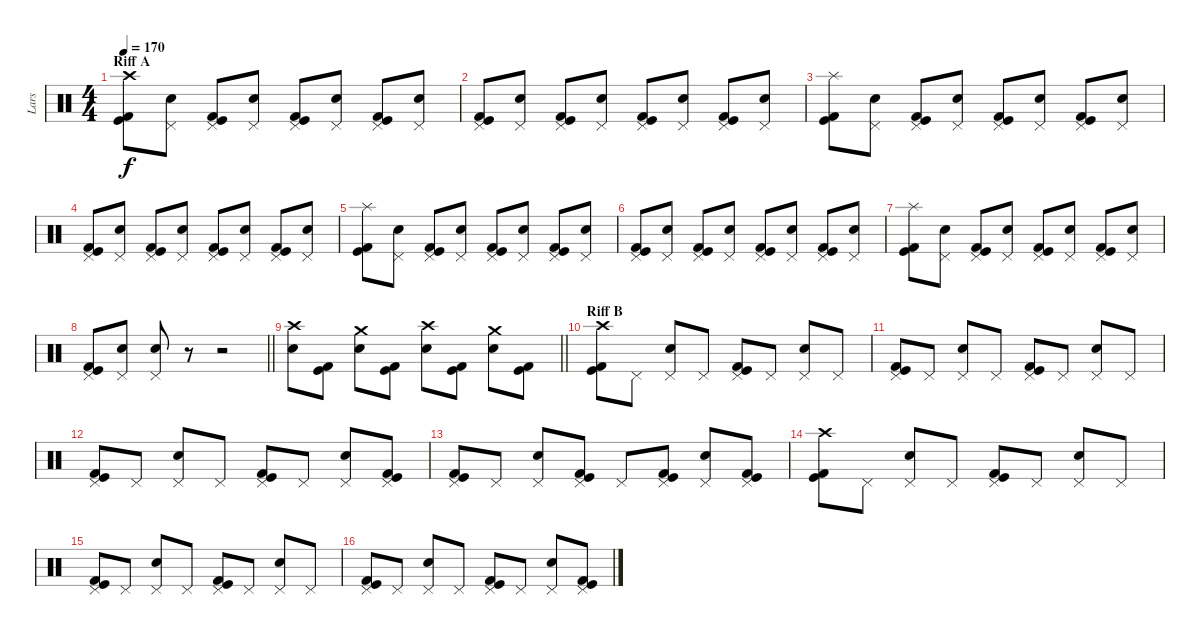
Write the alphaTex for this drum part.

\track ("Lars" "Lars") {instrument percussion}
\staff {score}
\articulation defaults
\ts (4 4)
\section ("" "Riff A")
\tempo 170
\clef neutral
\ks c
("Crash high (hit)" "Kick (hit)" "Kick (hit) 2").8{dy f} ("Pedal Hi-Hat (hit)" "Electric Snare (hit)").8 ("Pedal Hi-Hat (hit)" "Kick (hit)" "Kick (hit) 2").8 ("Pedal Hi-Hat (hit)" "Electric Snare (hit)").8 ("Pedal Hi-Hat (hit)" "Kick (hit)" "Kick (hit) 2").8 ("Pedal Hi-Hat (hit)" "Electric Snare (hit)").8 ("Pedal Hi-Hat (hit)" "Kick (hit)" "Kick (hit) 2").8 ("Pedal Hi-Hat (hit)" "Electric Snare (hit)").8 |
("Pedal Hi-Hat (hit)" "Kick (hit)" "Kick (hit) 2").8 ("Pedal Hi-Hat (hit)" "Electric Snare (hit)").8 ("Pedal Hi-Hat (hit)" "Kick (hit)" "Kick (hit) 2").8 ("Pedal Hi-Hat (hit)" "Electric Snare (hit)").8 ("Pedal Hi-Hat (hit)" "Kick (hit)" "Kick (hit) 2").8 ("Pedal Hi-Hat (hit)" "Electric Snare (hit)").8 ("Pedal Hi-Hat (hit)" "Kick (hit)" "Kick (hit) 2").8 ("Pedal Hi-Hat (hit)" "Electric Snare (hit)").8 |
("Splash (hit)" "Kick (hit)" "Kick (hit) 2").8 ("Pedal Hi-Hat (hit)" "Electric Snare (hit)").8 ("Pedal Hi-Hat (hit)" "Kick (hit)" "Kick (hit) 2").8 ("Pedal Hi-Hat (hit)" "Electric Snare (hit)").8 ("Pedal Hi-Hat (hit)" "Kick (hit)" "Kick (hit) 2").8 ("Pedal Hi-Hat (hit)" "Electric Snare (hit)").8 ("Pedal Hi-Hat (hit)" "Kick (hit)" "Kick (hit) 2").8 ("Pedal Hi-Hat (hit)" "Electric Snare (hit)").8 |
("Pedal Hi-Hat (hit)" "Kick (hit)" "Kick (hit) 2").8 ("Pedal Hi-Hat (hit)" "Electric Snare (hit)").8 ("Pedal Hi-Hat (hit)" "Kick (hit)" "Kick (hit) 2").8 ("Pedal Hi-Hat (hit)" "Electric Snare (hit)").8 ("Pedal Hi-Hat (hit)" "Kick (hit)" "Kick (hit) 2").8 ("Pedal Hi-Hat (hit)" "Electric Snare (hit)").8 ("Pedal Hi-Hat (hit)" "Kick (hit)" "Kick (hit) 2").8 ("Pedal Hi-Hat (hit)" "Electric Snare (hit)").8 |
("Splash (hit)" "Kick (hit)" "Kick (hit) 2").8 ("Pedal Hi-Hat (hit)" "Electric Snare (hit)").8 ("Pedal Hi-Hat (hit)" "Kick (hit)" "Kick (hit) 2").8 ("Pedal Hi-Hat (hit)" "Electric Snare (hit)").8 ("Pedal Hi-Hat (hit)" "Kick (hit)" "Kick (hit) 2").8 ("Pedal Hi-Hat (hit)" "Electric Snare (hit)").8 ("Pedal Hi-Hat (hit)" "Kick (hit)" "Kick (hit) 2").8 ("Pedal Hi-Hat (hit)" "Electric Snare (hit)").8 |
("Pedal Hi-Hat (hit)" "Kick (hit)" "Kick (hit) 2").8 ("Pedal Hi-Hat (hit)" "Electric Snare (hit)").8 ("Pedal Hi-Hat (hit)" "Kick (hit)" "Kick (hit) 2").8 ("Pedal Hi-Hat (hit)" "Electric Snare (hit)").8 ("Pedal Hi-Hat (hit)" "Kick (hit)" "Kick (hit) 2").8 ("Pedal Hi-Hat (hit)" "Electric Snare (hit)").8 ("Pedal Hi-Hat (hit)" "Kick (hit)" "Kick (hit) 2").8 ("Pedal Hi-Hat (hit)" "Electric Snare (hit)").8 |
("Splash (hit)" "Kick (hit)" "Kick (hit) 2").8 ("Pedal Hi-Hat (hit)" "Electric Snare (hit)").8 ("Pedal Hi-Hat (hit)" "Kick (hit)" "Kick (hit) 2").8 ("Pedal Hi-Hat (hit)" "Electric Snare (hit)").8 ("Pedal Hi-Hat (hit)" "Kick (hit)" "Kick (hit) 2").8 ("Pedal Hi-Hat (hit)" "Electric Snare (hit)").8 ("Pedal Hi-Hat (hit)" "Kick (hit)" "Kick (hit) 2").8 ("Pedal Hi-Hat (hit)" "Electric Snare (hit)").8 |
\barLineRight lightlight
("Pedal Hi-Hat (hit)" "Kick (hit)" "Kick (hit) 2").8 ("Pedal Hi-Hat (hit)" "Electric Snare (hit)").8 ("Pedal Hi-Hat (hit)" "Electric Snare (hit)").8 r.8 r.2 |
\section ("" "")
\barLineRight lightlight
("Crash high (hit)" "Electric Snare (hit)").8 ("Kick (hit)" "Kick (hit) 2").8 ("Crash medium (hit)" "Electric Snare (hit)").8 ("Kick (hit)" "Kick (hit) 2").8 ("Crash high (hit)" "Electric Snare (hit)").8 ("Kick (hit)" "Kick (hit) 2").8 ("Crash medium (hit)" "Electric Snare (hit)").8 ("Kick (hit)" "Kick (hit) 2").8 |
\section ("" "Riff B")
("Crash high (hit)" "Kick (hit)" "Kick (hit) 2").8 "Pedal Hi-Hat (hit)".8 ("Pedal Hi-Hat (hit)" "Electric Snare (hit)").8 "Pedal Hi-Hat (hit)".8 ("Pedal Hi-Hat (hit)" "Kick (hit)" "Kick (hit) 2").8 "Pedal Hi-Hat (hit)".8 ("Pedal Hi-Hat (hit)" "Electric Snare (hit)").8 "Pedal Hi-Hat (hit)".8 |
("Pedal Hi-Hat (hit)" "Kick (hit)" "Kick (hit) 2").8 "Pedal Hi-Hat (hit)".8 ("Pedal Hi-Hat (hit)" "Electric Snare (hit)").8 "Pedal Hi-Hat (hit)".8 ("Pedal Hi-Hat (hit)" "Kick (hit)" "Kick (hit) 2").8 "Pedal Hi-Hat (hit)".8 ("Pedal Hi-Hat (hit)" "Electric Snare (hit)").8 "Pedal Hi-Hat (hit)".8 |
("Pedal Hi-Hat (hit)" "Kick (hit)" "Kick (hit) 2").8 "Pedal Hi-Hat (hit)".8 ("Pedal Hi-Hat (hit)" "Electric Snare (hit)").8 "Pedal Hi-Hat (hit)".8 ("Pedal Hi-Hat (hit)" "Kick (hit)" "Kick (hit) 2").8 "Pedal Hi-Hat (hit)".8 ("Pedal Hi-Hat (hit)" "Electric Snare (hit)").8 ("Pedal Hi-Hat (hit)" "Kick (hit)" "Kick (hit) 2").8 |
("Pedal Hi-Hat (hit)" "Kick (hit)" "Kick (hit) 2").8 "Pedal Hi-Hat (hit)".8 ("Pedal Hi-Hat (hit)" "Electric Snare (hit)").8 ("Pedal Hi-Hat (hit)" "Kick (hit)" "Kick (hit) 2").8 "Pedal Hi-Hat (hit)".8 ("Pedal Hi-Hat (hit)" "Kick (hit)" "Kick (hit) 2").8 ("Pedal Hi-Hat (hit)" "Electric Snare (hit)").8 ("Pedal Hi-Hat (hit)" "Kick (hit)" "Kick (hit) 2").8 |
("Crash high (hit)" "Kick (hit)" "Kick (hit) 2").8 "Pedal Hi-Hat (hit)".8 ("Pedal Hi-Hat (hit)" "Electric Snare (hit)").8 "Pedal Hi-Hat (hit)".8 ("Pedal Hi-Hat (hit)" "Kick (hit)" "Kick (hit) 2").8 "Pedal Hi-Hat (hit)".8 ("Pedal Hi-Hat (hit)" "Electric Snare (hit)").8 "Pedal Hi-Hat (hit)".8 |
("Pedal Hi-Hat (hit)" "Kick (hit)" "Kick (hit) 2").8 "Pedal Hi-Hat (hit)".8 ("Pedal Hi-Hat (hit)" "Electric Snare (hit)").8 "Pedal Hi-Hat (hit)".8 ("Pedal Hi-Hat (hit)" "Kick (hit)" "Kick (hit) 2").8 "Pedal Hi-Hat (hit)".8 ("Pedal Hi-Hat (hit)" "Electric Snare (hit)").8 "Pedal Hi-Hat (hit)".8 |
("Pedal Hi-Hat (hit)" "Kick (hit)" "Kick (hit) 2").8 "Pedal Hi-Hat (hit)".8 ("Pedal Hi-Hat (hit)" "Electric Snare (hit)").8 "Pedal Hi-Hat (hit)".8 ("Pedal Hi-Hat (hit)" "Kick (hit)" "Kick (hit) 2").8 "Pedal Hi-Hat (hit)".8 ("Pedal Hi-Hat (hit)" "Electric Snare (hit)").8 ("Pedal Hi-Hat (hit)" "Kick (hit)" "Kick (hit) 2").8
